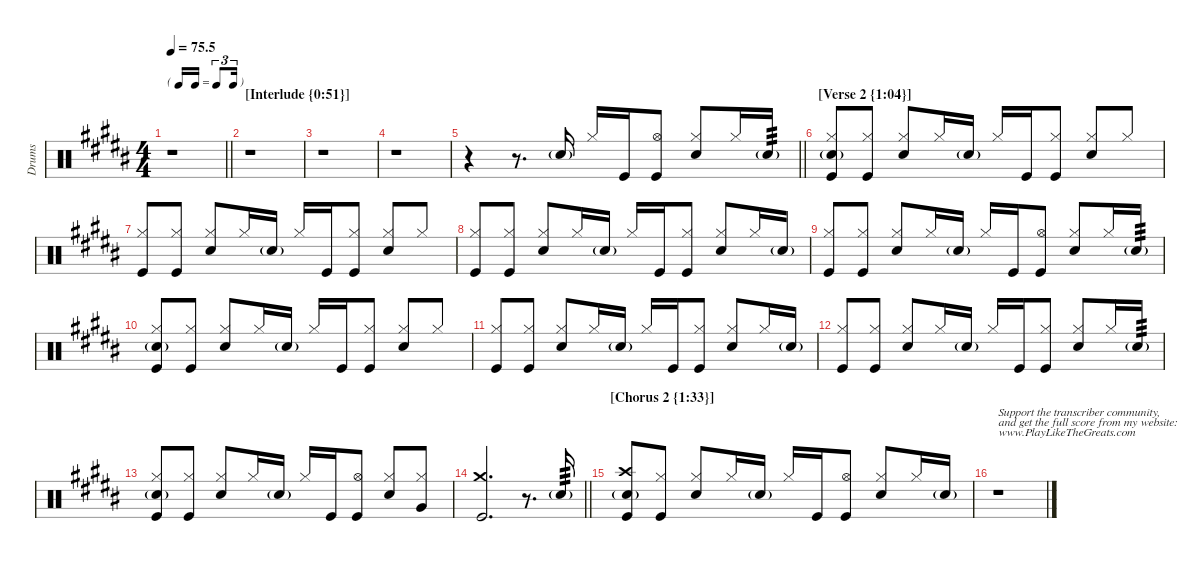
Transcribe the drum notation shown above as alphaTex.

\defaultSystemsLayout 4
\hideDynamics
\bracketExtendMode groupsimilarinstruments
\track ("Drums" "Drums") {defaultSystemsLayout 4 instrument percussion}
\staff {score}
\articulation defaults
\ts (4 4)
\tf triplet16th
\tempo
75.5
\accidentals auto
\clef neutral
\ottava regular
\simile none
\scale
0.510637
\barLineRight lightlight
\ks b
r.1{dy mp beam Up} |
\section ("" "[Interlude {0:51}]")
\scale
0.244681 r.1{beam Up} |
\scale
0.244681 r.1{beam Up} |
\scale
0.244681 r.1{beam Up} |
\scale
0.244682
\barLineRight lightlight
r.4{beam Up} r.8{d beam Up} "Snare (hit) 2"{g acc forcenatural}.16{beam Up} "Hi-Hat (closed)"{acc forcenatural}.16{dy f beam Up} "Kick (hit)"{acc forcenatural}.16{beam Up} ("Hi-Hat (open)"{acc forcenatural} "Kick (hit)"{acc forcenatural}).8{beam Up} ("Hi-Hat (closed)"{acc forcenatural} "Snare (hit) 2"{acc forcenatural}).8{beam Up} "Hi-Hat (closed)"{acc forcenatural}.16{beam Up} "Electric Snare (hit)"{g acc forcenatural}.16{tp 3 dy mp beam Up} |
\section ("" "[Verse 2 {1:04}]")
\scale
0.265955 ("Hi-Hat (closed)"{acc forcenatural} "Snare (hit) 2"{g acc forcenatural} "Kick (hit)"{acc forcenatural}).8{dy f beam Up} ("Hi-Hat (closed)"{acc forcenatural} "Kick (hit)"{acc forcenatural}).8{beam Up} ("Hi-Hat (closed)"{acc forcenatural} "Snare (hit) 2"{acc forcenatural}).8{beam Up} "Hi-Hat (closed)"{acc forcenatural}.16{beam Up} "Snare (hit) 2"{g acc forcenatural}.16{dy mp beam Up} "Hi-Hat (closed)"{acc forcenatural}.16{dy f beam Up} "Kick (hit)"{acc forcenatural}.16{beam Up} ("Hi-Hat (closed)"{acc forcenatural} "Kick (hit)"{acc forcenatural}).8{beam Up} ("Hi-Hat (closed)"{acc forcenatural} "Snare (hit) 2"{acc forcenatural}).8{beam Up} "Hi-Hat (closed)"{acc forcenatural}.8{beam Up} |
\scale
0.244682 ("Hi-Hat (closed)"{acc forcenatural} "Kick (hit)"{acc forcenatural}).8{beam Up} ("Hi-Hat (closed)"{acc forcenatural} "Kick (hit)"{acc forcenatural}).8{beam Up} ("Hi-Hat (closed)"{acc forcenatural} "Snare (hit) 2"{acc forcenatural}).8{beam Up} "Hi-Hat (closed)"{acc forcenatural}.16{beam Up} "Snare (hit) 2"{g acc forcenatural}.16{dy mp beam Up} "Hi-Hat (closed)"{acc forcenatural}.16{dy f beam Up} "Kick (hit)"{acc forcenatural}.16{beam Up} ("Hi-Hat (closed)"{acc forcenatural} "Kick (hit)"{acc forcenatural}).8{beam Up} ("Hi-Hat (closed)"{acc forcenatural} "Snare (hit) 2"{acc forcenatural}).8{beam Up} "Hi-Hat (closed)"{acc forcenatural}.8{beam Up} |
\scale
0.244682 ("Hi-Hat (closed)"{acc forcenatural} "Kick (hit)"{acc forcenatural}).8{beam Up} ("Hi-Hat (closed)"{acc forcenatural} "Kick (hit)"{acc forcenatural}).8{beam Up} ("Hi-Hat (closed)"{acc forcenatural} "Snare (hit) 2"{acc forcenatural}).8{beam Up} "Hi-Hat (closed)"{acc forcenatural}.16{beam Up} "Snare (hit) 2"{g acc forcenatural}.16{dy mp beam Up} "Hi-Hat (closed)"{acc forcenatural}.16{dy f beam Up} "Kick (hit)"{acc forcenatural}.16{beam Up} ("Hi-Hat (closed)"{acc forcenatural} "Kick (hit)"{acc forcenatural}).8{beam Up} ("Hi-Hat (closed)"{acc forcenatural} "Snare (hit) 2"{acc forcenatural}).8{beam Up} "Hi-Hat (closed)"{acc forcenatural}.16{beam Up} "Snare (hit) 2"{g acc forcenatural}.16{dy mp beam Up} |
\scale
0.244682 ("Hi-Hat (closed)"{acc forcenatural} "Kick (hit)"{acc forcenatural}).8{dy f beam Up} ("Hi-Hat (closed)"{acc forcenatural} "Kick (hit)"{acc forcenatural}).8{beam Up} ("Hi-Hat (closed)"{acc forcenatural} "Snare (hit) 2"{acc forcenatural}).8{beam Up} "Hi-Hat (closed)"{acc forcenatural}.16{beam Up} "Snare (hit) 2"{g acc forcenatural}.16{dy mp beam Up} "Hi-Hat (closed)"{acc forcenatural}.16{dy f beam Up} "Kick (hit)"{acc forcenatural}.16{beam Up} ("Hi-Hat (open)"{acc forcenatural} "Kick (hit)"{acc forcenatural}).8{beam Up} ("Hi-Hat (closed)"{acc forcenatural} "Snare (hit) 2"{acc forcenatural}).8{beam Up} "Hi-Hat (closed)"{acc forcenatural}.16{beam Up} "Electric Snare (hit)"{g acc forcenatural}.16{tp 3 dy mp beam Up} |
("Hi-Hat (closed)"{acc forcenatural} "Snare (hit) 2"{g acc forcenatural} "Kick (hit)"{acc forcenatural}).8{dy f beam Up} ("Hi-Hat (closed)"{acc forcenatural} "Kick (hit)"{acc forcenatural}).8{beam Up} ("Hi-Hat (closed)"{acc forcenatural} "Snare (hit) 2"{acc forcenatural}).8{beam Up} "Hi-Hat (closed)"{acc forcenatural}.16{beam Up} "Snare (hit) 2"{g acc forcenatural}.16{dy mp beam Up} "Hi-Hat (closed)"{acc forcenatural}.16{dy f beam Up} "Kick (hit)"{acc forcenatural}.16{beam Up} ("Hi-Hat (closed)"{acc forcenatural} "Kick (hit)"{acc forcenatural}).8{beam Up} ("Hi-Hat (closed)"{acc forcenatural} "Snare (hit) 2"{acc forcenatural}).8{beam Up} "Hi-Hat (closed)"{acc forcenatural}.8{beam Up} |
("Hi-Hat (closed)"{acc forcenatural} "Kick (hit)"{acc forcenatural}).8{beam Up} ("Hi-Hat (closed)"{acc forcenatural} "Kick (hit)"{acc forcenatural}).8{beam Up} ("Hi-Hat (closed)"{acc forcenatural} "Snare (hit) 2"{acc forcenatural}).8{beam Up} "Hi-Hat (closed)"{acc forcenatural}.16{beam Up} "Snare (hit) 2"{g acc forcenatural}.16{dy mp beam Up} "Hi-Hat (closed)"{acc forcenatural}.16{dy f beam Up} "Kick (hit)"{acc forcenatural}.16{beam Up} ("Hi-Hat (closed)"{acc forcenatural} "Kick (hit)"{acc forcenatural}).8{beam Up} ("Hi-Hat (closed)"{acc forcenatural} "Snare (hit) 2"{acc forcenatural}).8{beam Up} "Hi-Hat (closed)"{acc forcenatural}.16{beam Up} "Snare (hit) 2"{g acc forcenatural}.16{dy mp beam Up} |
("Hi-Hat (closed)"{acc forcenatural} "Kick (hit)"{acc forcenatural}).8{dy f beam Up} ("Hi-Hat (closed)"{acc forcenatural} "Kick (hit)"{acc forcenatural}).8{beam Up} ("Hi-Hat (closed)"{acc forcenatural} "Snare (hit) 2"{acc forcenatural}).8{beam Up} "Hi-Hat (closed)"{acc forcenatural}.16{beam Up} "Snare (hit) 2"{g acc forcenatural}.16{dy mp beam Up} "Hi-Hat (closed)"{acc forcenatural}.16{dy f beam Up} "Kick (hit)"{acc forcenatural}.16{beam Up} ("Hi-Hat (closed)"{acc forcenatural} "Kick (hit)"{acc forcenatural}).8{beam Up} ("Hi-Hat (closed)"{acc forcenatural} "Snare (hit) 2"{acc forcenatural}).8{beam Up} "Hi-Hat (closed)"{acc forcenatural}.16{beam Up} "Electric Snare (hit)"{g acc forcenatural}.16{tp 3 dy mp beam Up} |
("Hi-Hat (closed)"{acc forcenatural} "Snare (hit) 2"{g acc forcenatural} "Kick (hit)"{acc forcenatural}).8{dy f beam Up} ("Hi-Hat (closed)"{acc forcenatural} "Kick (hit)"{acc forcenatural}).8{beam Up} ("Hi-Hat (closed)"{acc forcenatural} "Snare (hit) 2"{acc forcenatural}).8{beam Up} "Hi-Hat (closed)"{acc forcenatural}.16{beam Up} "Snare (hit) 2"{g acc forcenatural}.16{dy mp beam Up} "Hi-Hat (closed)"{acc forcenatural}.16{dy f beam Up} "Kick (hit)"{acc forcenatural}.16{beam Up} ("Hi-Hat (open)"{acc forcenatural} "Kick (hit)"{acc forcenatural}).8{beam Up} ("Hi-Hat (closed)"{acc forcenatural} "Snare (hit) 2"{acc forcenatural}).8{beam Up} ("Hi-Hat (closed)"{acc forcenatural} "Very Low Tom (hit)"{acc forcenatural}).8{beam Up} |
\barLineRight lightlight
("Kick (hit)"{acc forcenatural} "Crash medium (hit)"{acc forcenatural}).2{d beam Up} r.8{d beam Up} "Snare (hit) 2"{g acc forcenatural}.16{tp 3 dy mp beam Up} |
\section ("" "[Chorus 2 {1:33}]")
\scale
0.265955 ("Kick (hit)"{acc forcenatural} "Crash high (hit)"{acc forcenatural} "Snare (hit) 2"{g acc forcenatural}).8{dy f beam Up} ("Hi-Hat (closed)"{acc forcenatural} "Kick (hit)"{acc forcenatural}).8{beam Up} ("Hi-Hat (closed)"{acc forcenatural} "Snare (hit) 2"{acc forcenatural}).8{beam Up} "Hi-Hat (closed)"{acc forcenatural}.16{beam Up} "Snare (hit) 2"{g acc forcenatural}.16{dy mp beam Up} "Hi-Hat (closed)"{acc forcenatural}.16{dy f beam Up} "Kick (hit)"{acc forcenatural}.16{beam Up} ("Hi-Hat (open)"{acc forcenatural} "Kick (hit)"{acc forcenatural}).8{beam Up} ("Hi-Hat (closed)"{acc forcenatural} "Snare (hit) 2"{acc forcenatural}).8{beam Up} "Hi-Hat (closed)"{acc forcenatural}.16{beam Up} "Snare (hit) 2"{g acc forcenatural}.16{dy mp beam Up} |
\scale
0.734045 r.1{txt "Support the transcriber community,\nand get the full score from my website:\n\nwww.PlayLikeTheGreats.com" beam Up}
